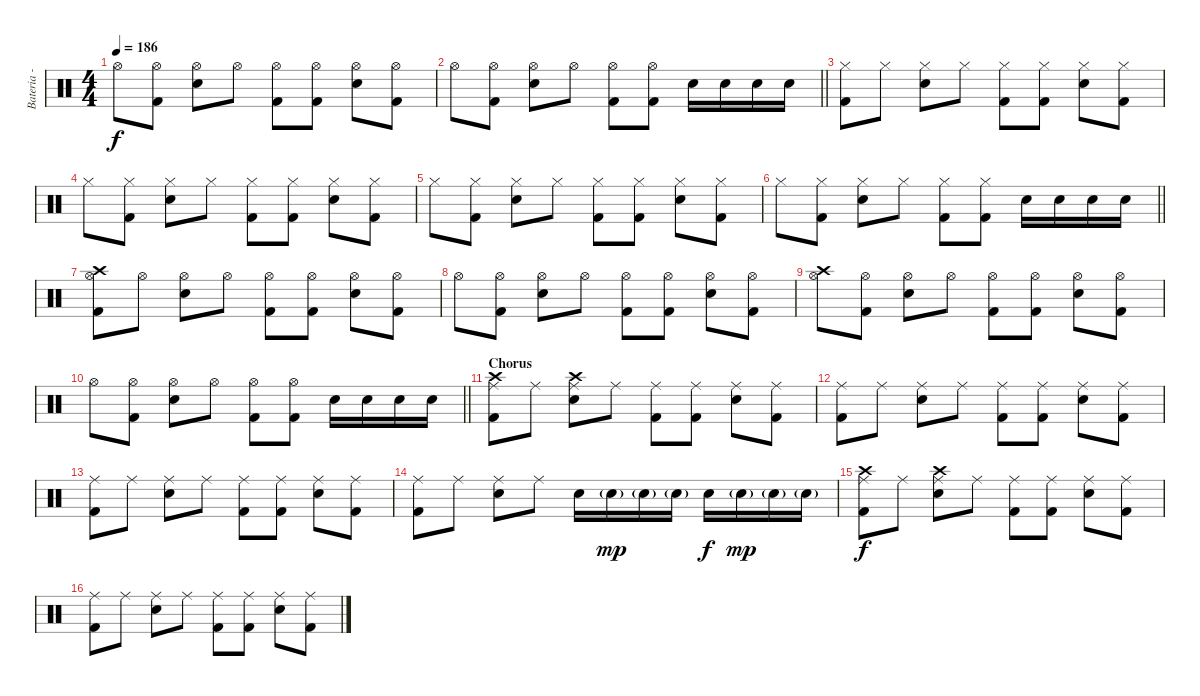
\track ("Bateria - Larzon" "Bateria - ") {instrument percussion}
\staff {score}
\articulation defaults
\ts (4 4)
\tempo 186
\clef neutral
\ks c "Hi-Hat (open)".8{dy f}
("Kick (hit) 2" "Hi-Hat (open)").8 ("Snare (hit) 2" "Hi-Hat (open)").8 "Hi-Hat (open)".8 ("Kick (hit) 2" "Hi-Hat (open)").8 ("Kick (hit) 2" "Hi-Hat (open)").8 ("Snare (hit) 2" "Hi-Hat (open)").8 ("Kick (hit) 2" "Hi-Hat (open)").8 |
\barLineRight lightlight "Hi-Hat (open)".8
("Kick (hit) 2" "Hi-Hat (open)").8 ("Snare (hit) 2" "Hi-Hat (open)").8 "Hi-Hat (open)".8 ("Kick (hit) 2" "Hi-Hat (open)").8 ("Kick (hit) 2" "Hi-Hat (open)").8 "Snare (hit) 2".16 "Snare (hit) 2".16 "Snare (hit) 2".16 "Snare (hit) 2".16 |
("Kick (hit) 2" "Hi-Hat (closed)").8 "Hi-Hat (closed)".8 ("Snare (hit) 2" "Hi-Hat (closed)").8 "Hi-Hat (closed)".8 ("Kick (hit) 2" "Hi-Hat (closed)").8 ("Kick (hit) 2" "Hi-Hat (closed)").8 ("Snare (hit) 2" "Hi-Hat (closed)").8 ("Kick (hit) 2" "Hi-Hat (closed)").8 |
"Hi-Hat (closed)".8 ("Kick (hit) 2" "Hi-Hat (closed)").8 ("Snare (hit) 2" "Hi-Hat (closed)").8 "Hi-Hat (closed)".8 ("Kick (hit) 2" "Hi-Hat (closed)").8 ("Kick (hit) 2" "Hi-Hat (closed)").8 ("Snare (hit) 2" "Hi-Hat (closed)").8 ("Kick (hit) 2" "Hi-Hat (closed)").8 |
"Hi-Hat (closed)".8 ("Kick (hit) 2" "Hi-Hat (closed)").8 ("Snare (hit) 2" "Hi-Hat (closed)").8 "Hi-Hat (closed)".8 ("Kick (hit) 2" "Hi-Hat (closed)").8 ("Kick (hit) 2" "Hi-Hat (closed)").8 ("Snare (hit) 2" "Hi-Hat (closed)").8 ("Kick (hit) 2" "Hi-Hat (closed)").8 |
\barLineRight lightlight "Hi-Hat (closed)".8
("Kick (hit) 2" "Hi-Hat (closed)").8 ("Snare (hit) 2" "Hi-Hat (closed)").8 "Hi-Hat (closed)".8 ("Kick (hit) 2" "Hi-Hat (closed)").8 ("Kick (hit) 2" "Hi-Hat (closed)").8 "Snare (hit) 2".16 "Snare (hit) 2".16 "Snare (hit) 2".16 "Snare (hit) 2".16 |
("Kick (hit) 2" "Crash high (hit)" "Hi-Hat (open)").8 "Hi-Hat (open)".8 ("Snare (hit) 2" "Hi-Hat (open)").8 "Hi-Hat (open)".8 ("Kick (hit) 2" "Hi-Hat (open)").8 ("Kick (hit) 2" "Hi-Hat (open)").8 ("Snare (hit) 2" "Hi-Hat (open)").8 ("Kick (hit) 2" "Hi-Hat (open)").8 |
"Hi-Hat (open)".8 ("Kick (hit) 2" "Hi-Hat (open)").8 ("Snare (hit) 2" "Hi-Hat (open)").8 "Hi-Hat (open)".8 ("Kick (hit) 2" "Hi-Hat (open)").8 ("Kick (hit) 2" "Hi-Hat (open)").8 ("Snare (hit) 2" "Hi-Hat (open)").8 ("Kick (hit) 2" "Hi-Hat (open)").8 |
("Crash high (hit)" "Hi-Hat (open)").8 ("Kick (hit) 2" "Hi-Hat (open)").8 ("Snare (hit) 2" "Hi-Hat (open)").8 "Hi-Hat (open)".8 ("Kick (hit) 2" "Hi-Hat (open)").8 ("Kick (hit) 2" "Hi-Hat (open)").8 ("Snare (hit) 2" "Hi-Hat (open)").8 ("Kick (hit) 2" "Hi-Hat (open)").8 |
\barLineRight lightlight "Hi-Hat (open)".8
("Kick (hit) 2" "Hi-Hat (open)").8 ("Snare (hit) 2" "Hi-Hat (open)").8 "Hi-Hat (open)".8 ("Kick (hit) 2" "Hi-Hat (open)").8 ("Kick (hit) 2" "Hi-Hat (open)").8 "Snare (hit) 2".16 "Snare (hit) 2".16 "Snare (hit) 2".16 "Snare (hit) 2".16 |
\section ("" "Chorus")
("Kick (hit) 2" "Crash high (hit)" "Ride (middle)").8 "Ride (middle)".8 ("Snare (hit) 2" "Crash high (hit)" "Ride (middle)").8 "Ride (middle)".8 ("Kick (hit) 2" "Ride (middle)").8 ("Kick (hit) 2" "Ride (middle)").8 ("Snare (hit) 2" "Ride (middle)").8 ("Kick (hit) 2" "Ride (middle)").8 |
("Kick (hit) 2" "Ride (middle)").8 "Ride (middle)".8 ("Snare (hit) 2" "Ride (middle)").8 "Ride (middle)".8 ("Kick (hit) 2" "Ride (middle)").8 ("Kick (hit) 2" "Ride (middle)").8 ("Snare (hit) 2" "Ride (middle)").8 ("Kick (hit) 2" "Ride (middle)").8 |
("Kick (hit) 2" "Ride (middle)").8 "Ride (middle)".8 ("Snare (hit) 2" "Ride (middle)").8 "Ride (middle)".8 ("Kick (hit) 2" "Ride (middle)").8 ("Kick (hit) 2" "Ride (middle)").8 ("Snare (hit) 2" "Ride (middle)").8 ("Kick (hit) 2" "Ride (middle)").8 |
("Kick (hit) 2" "Ride (middle)").8 "Ride (middle)".8 ("Snare (hit) 2" "Ride (middle)").8 "Ride (middle)".8 "Snare (hit) 2".16 "Snare (hit) 2"{g}.16{dy mp} "Snare (hit) 2"{g}.16 "Snare (hit) 2"{g}.16 "Snare (hit) 2".16{dy f} "Snare (hit) 2"{g}.16{dy mp} "Snare (hit) 2"{g}.16 "Snare (hit) 2"{g}.16 |
("Kick (hit) 2" "Crash high (hit)" "Ride (middle)").8{dy f} "Ride (middle)".8 ("Snare (hit) 2" "Crash high (hit)" "Ride (middle)").8 "Ride (middle)".8 ("Kick (hit) 2" "Ride (middle)").8 ("Kick (hit) 2" "Ride (middle)").8 ("Snare (hit) 2" "Ride (middle)").8 ("Kick (hit) 2" "Ride (middle)").8 |
("Kick (hit) 2" "Ride (middle)").8 "Ride (middle)".8 ("Snare (hit) 2" "Ride (middle)").8 "Ride (middle)".8 ("Kick (hit) 2" "Ride (middle)").8 ("Kick (hit) 2" "Ride (middle)").8 ("Snare (hit) 2" "Ride (middle)").8 ("Kick (hit) 2" "Ride (middle)").8
